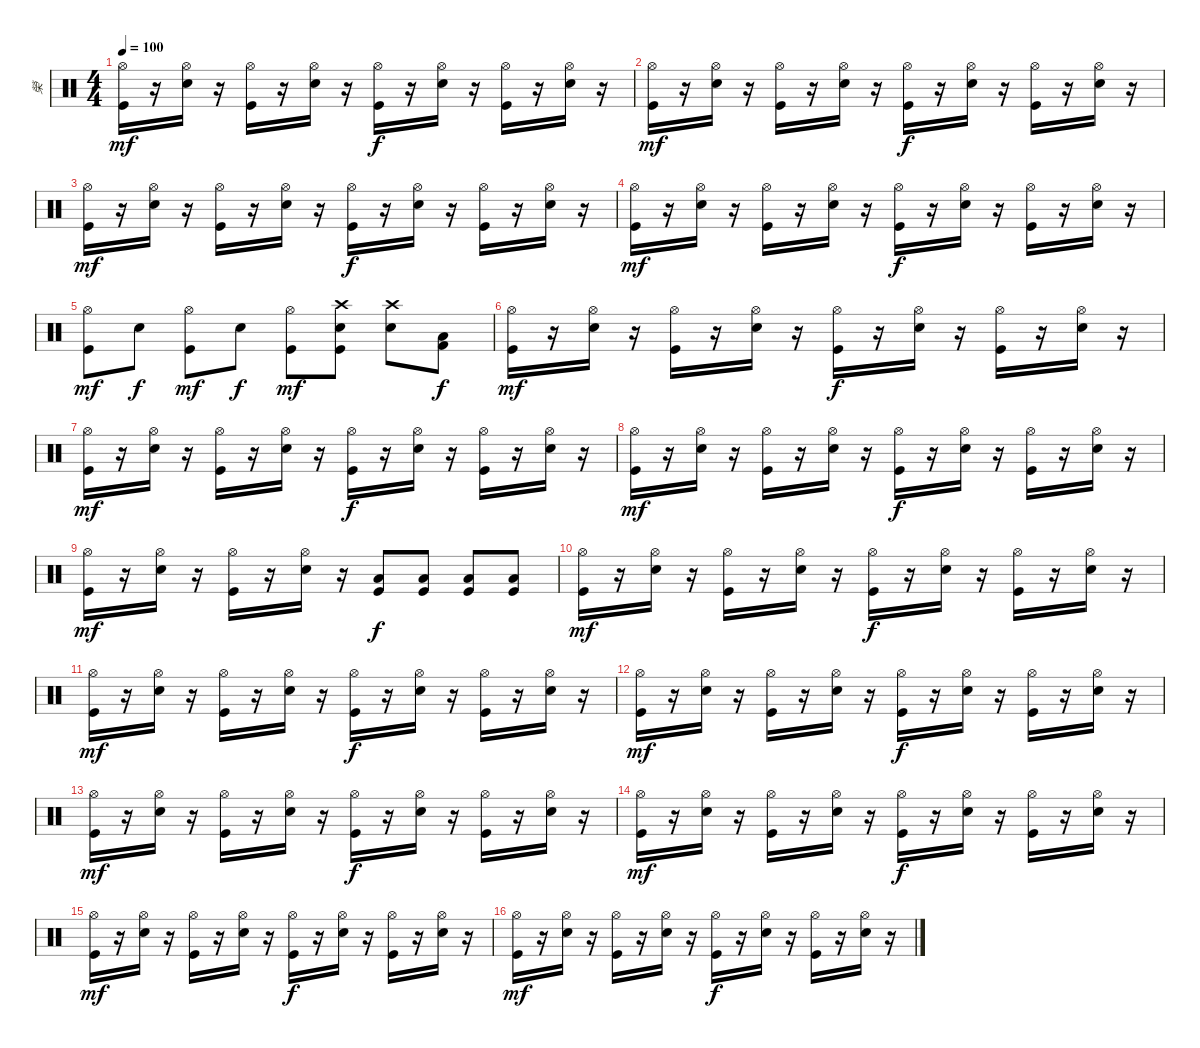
\track ("榮" "榮") {instrument percussion}
\staff {score}
\articulation defaults
\ts (4 4)
\tempo 100
\clef neutral
\ks c
("Hi-Hat (open)" "Kick (hit)").16{dy mf} r.16 ("Hi-Hat (open)" "Snare (hit) 2").16 r.16 ("Hi-Hat (open)" "Kick (hit)").16 r.16 ("Hi-Hat (open)" "Snare (hit) 2").16 r.16 ("Hi-Hat (open)" "Kick (hit)").16{dy f} r.16 ("Hi-Hat (open)" "Snare (hit) 2").16 r.16 ("Hi-Hat (open)" "Kick (hit)").16 r.16 ("Hi-Hat (open)" "Snare (hit) 2").16 r.16 |
("Hi-Hat (open)" "Kick (hit)").16{dy mf} r.16 ("Hi-Hat (open)" "Snare (hit) 2").16 r.16 ("Hi-Hat (open)" "Kick (hit)").16 r.16 ("Hi-Hat (open)" "Snare (hit) 2").16 r.16 ("Hi-Hat (open)" "Kick (hit)").16{dy f} r.16 ("Hi-Hat (open)" "Snare (hit) 2").16 r.16 ("Hi-Hat (open)" "Kick (hit)").16 r.16 ("Hi-Hat (open)" "Snare (hit) 2").16 r.16 |
("Hi-Hat (open)" "Kick (hit)").16{dy mf} r.16 ("Hi-Hat (open)" "Snare (hit) 2").16 r.16 ("Hi-Hat (open)" "Kick (hit)").16 r.16 ("Hi-Hat (open)" "Snare (hit) 2").16 r.16 ("Hi-Hat (open)" "Kick (hit)").16{dy f} r.16 ("Hi-Hat (open)" "Snare (hit) 2").16 r.16 ("Hi-Hat (open)" "Kick (hit)").16 r.16 ("Hi-Hat (open)" "Snare (hit) 2").16 r.16 |
("Hi-Hat (open)" "Kick (hit)").16{dy mf} r.16 ("Hi-Hat (open)" "Snare (hit) 2").16 r.16 ("Hi-Hat (open)" "Kick (hit)").16 r.16 ("Hi-Hat (open)" "Snare (hit) 2").16 r.16 ("Hi-Hat (open)" "Kick (hit)").16{dy f} r.16 ("Hi-Hat (open)" "Snare (hit) 2").16 r.16 ("Hi-Hat (open)" "Kick (hit)").16 r.16 ("Hi-Hat (open)" "Snare (hit) 2").16 r.16 |
("Hi-Hat (open)" "Kick (hit)").8{dy mf} "Snare (hit) 2".8{dy f} ("Hi-Hat (open)" "Kick (hit)").8{dy mf} "Snare (hit) 2".8{dy f} ("Hi-Hat (open)" "Kick (hit)").8{dy mf} ("Crash high (hit)" "Snare (hit) 2" "Kick (hit)").8 ("Crash high (hit)" "Snare (hit) 2").8 ("Low Tom (hit)" "Kick (hit) 2").8{dy f} |
("Hi-Hat (open)" "Kick (hit)").16{dy mf} r.16 ("Hi-Hat (open)" "Snare (hit) 2").16 r.16 ("Hi-Hat (open)" "Kick (hit)").16 r.16 ("Hi-Hat (open)" "Snare (hit) 2").16 r.16 ("Hi-Hat (open)" "Kick (hit)").16{dy f} r.16 ("Hi-Hat (open)" "Snare (hit) 2").16 r.16 ("Hi-Hat (open)" "Kick (hit)").16 r.16 ("Hi-Hat (open)" "Snare (hit) 2").16 r.16 |
("Hi-Hat (open)" "Kick (hit)").16{dy mf} r.16 ("Hi-Hat (open)" "Snare (hit) 2").16 r.16 ("Hi-Hat (open)" "Kick (hit)").16 r.16 ("Hi-Hat (open)" "Snare (hit) 2").16 r.16 ("Hi-Hat (open)" "Kick (hit)").16{dy f} r.16 ("Hi-Hat (open)" "Snare (hit) 2").16 r.16 ("Hi-Hat (open)" "Kick (hit)").16 r.16 ("Hi-Hat (open)" "Snare (hit) 2").16 r.16 |
("Hi-Hat (open)" "Kick (hit)").16{dy mf} r.16 ("Hi-Hat (open)" "Snare (hit) 2").16 r.16 ("Hi-Hat (open)" "Kick (hit)").16 r.16 ("Hi-Hat (open)" "Snare (hit) 2").16 r.16 ("Hi-Hat (open)" "Kick (hit)").16{dy f} r.16 ("Hi-Hat (open)" "Snare (hit) 2").16 r.16 ("Hi-Hat (open)" "Kick (hit)").16 r.16 ("Hi-Hat (open)" "Snare (hit) 2").16 r.16 |
("Hi-Hat (open)" "Kick (hit)").16{dy mf} r.16 ("Hi-Hat (open)" "Snare (hit) 2").16 r.16 ("Hi-Hat (open)" "Kick (hit)").16 r.16 ("Hi-Hat (open)" "Snare (hit) 2").16 r.16 ("Low Tom (hit)" "Kick (hit)").8{dy f} ("Low Tom (hit)" "Kick (hit)").8 ("Low Tom (hit)" "Kick (hit)").8 ("Low Tom (hit)" "Kick (hit)").8 |
("Hi-Hat (open)" "Kick (hit)").16{dy mf} r.16 ("Hi-Hat (open)" "Snare (hit) 2").16 r.16 ("Hi-Hat (open)" "Kick (hit)").16 r.16 ("Hi-Hat (open)" "Snare (hit) 2").16 r.16 ("Hi-Hat (open)" "Kick (hit)").16{dy f} r.16 ("Hi-Hat (open)" "Snare (hit) 2").16 r.16 ("Hi-Hat (open)" "Kick (hit)").16 r.16 ("Hi-Hat (open)" "Snare (hit) 2").16 r.16 |
("Hi-Hat (open)" "Kick (hit)").16{dy mf} r.16 ("Hi-Hat (open)" "Snare (hit) 2").16 r.16 ("Hi-Hat (open)" "Kick (hit)").16 r.16 ("Hi-Hat (open)" "Snare (hit) 2").16 r.16 ("Hi-Hat (open)" "Kick (hit)").16{dy f} r.16 ("Hi-Hat (open)" "Snare (hit) 2").16 r.16 ("Hi-Hat (open)" "Kick (hit)").16 r.16 ("Hi-Hat (open)" "Snare (hit) 2").16 r.16 |
("Hi-Hat (open)" "Kick (hit)").16{dy mf} r.16 ("Hi-Hat (open)" "Snare (hit) 2").16 r.16 ("Hi-Hat (open)" "Kick (hit)").16 r.16 ("Hi-Hat (open)" "Snare (hit) 2").16 r.16 ("Hi-Hat (open)" "Kick (hit)").16{dy f} r.16 ("Hi-Hat (open)" "Snare (hit) 2").16 r.16 ("Hi-Hat (open)" "Kick (hit)").16 r.16 ("Hi-Hat (open)" "Snare (hit) 2").16 r.16 |
("Hi-Hat (open)" "Kick (hit)").16{dy mf} r.16 ("Hi-Hat (open)" "Snare (hit) 2").16 r.16 ("Hi-Hat (open)" "Kick (hit)").16 r.16 ("Hi-Hat (open)" "Snare (hit) 2").16 r.16 ("Hi-Hat (open)" "Kick (hit)").16{dy f} r.16 ("Hi-Hat (open)" "Snare (hit) 2").16 r.16 ("Hi-Hat (open)" "Kick (hit)").16 r.16 ("Hi-Hat (open)" "Snare (hit) 2").16 r.16 |
("Hi-Hat (open)" "Kick (hit)").16{dy mf} r.16 ("Hi-Hat (open)" "Snare (hit) 2").16 r.16 ("Hi-Hat (open)" "Kick (hit)").16 r.16 ("Hi-Hat (open)" "Snare (hit) 2").16 r.16 ("Hi-Hat (open)" "Kick (hit)").16{dy f} r.16 ("Hi-Hat (open)" "Snare (hit) 2").16 r.16 ("Hi-Hat (open)" "Kick (hit)").16 r.16 ("Hi-Hat (open)" "Snare (hit) 2").16 r.16 |
("Hi-Hat (open)" "Kick (hit)").16{dy mf} r.16 ("Hi-Hat (open)" "Snare (hit) 2").16 r.16 ("Hi-Hat (open)" "Kick (hit)").16 r.16 ("Hi-Hat (open)" "Snare (hit) 2").16 r.16 ("Hi-Hat (open)" "Kick (hit)").16{dy f} r.16 ("Hi-Hat (open)" "Snare (hit) 2").16 r.16 ("Hi-Hat (open)" "Kick (hit)").16 r.16 ("Hi-Hat (open)" "Snare (hit) 2").16 r.16 |
("Hi-Hat (open)" "Kick (hit)").16{dy mf} r.16 ("Hi-Hat (open)" "Snare (hit) 2").16 r.16 ("Hi-Hat (open)" "Kick (hit)").16 r.16 ("Hi-Hat (open)" "Snare (hit) 2").16 r.16 ("Hi-Hat (open)" "Kick (hit)").16{dy f} r.16 ("Hi-Hat (open)" "Snare (hit) 2").16 r.16 ("Hi-Hat (open)" "Kick (hit)").16 r.16 ("Hi-Hat (open)" "Snare (hit) 2").16 r.16
